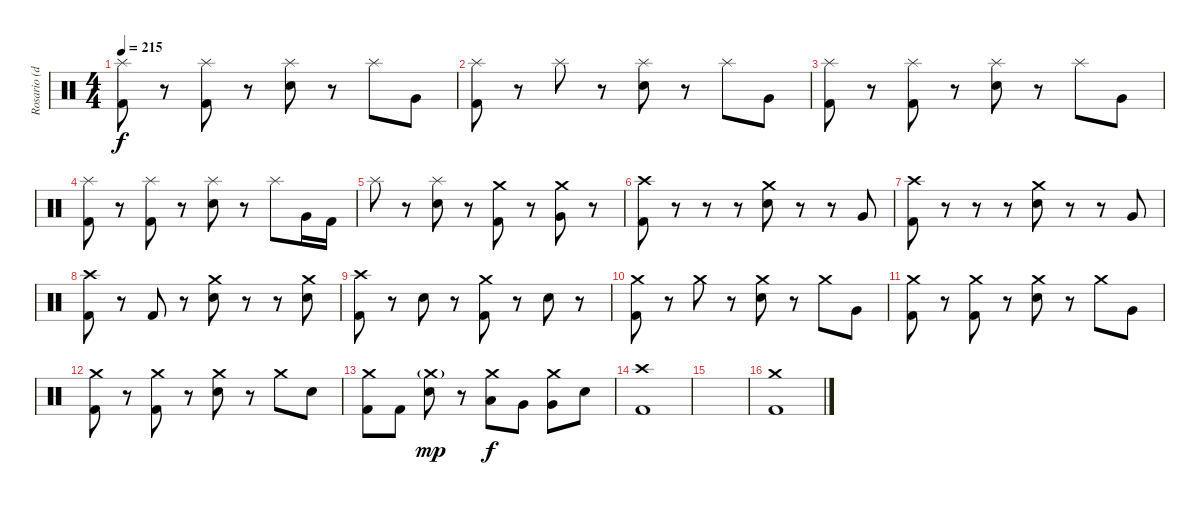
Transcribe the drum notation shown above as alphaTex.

\track ("Rosario (drum)" "Rosario (d") {instrument percussion}
\staff {score}
\articulation defaults
\ts (4 4)
\tempo 215
\clef neutral
\ks c
("Splash (hit)" "Kick (hit) 2").8{dy f} r.8 ("Splash (hit)" "Kick (hit) 2").8 r.8 ("Splash (hit)" "Electric Snare (hit)").8 r.8 "Splash (hit)".8 "Very Low Tom (hit)".8 |
("Splash (hit)" "Kick (hit) 2").8 r.8 "Splash (hit)".8 r.8 ("Splash (hit)" "Electric Snare (hit)").8 r.8 "Splash (hit)".8 "Very Low Tom (hit)".8 |
("Splash (hit)" "Kick (hit) 2").8 r.8 ("Splash (hit)" "Kick (hit) 2").8 r.8 ("Splash (hit)" "Electric Snare (hit)").8 r.8 "Splash (hit)".8 "Very Low Tom (hit)".8 |
("Splash (hit)" "Kick (hit) 2").8 r.8 ("Splash (hit)" "Kick (hit) 2").8 r.8 ("Splash (hit)" "Electric Snare (hit)").8 r.8 "Splash (hit)".8 "Very Low Tom (hit)".16 "Kick (hit) 2".16 |
"Splash (hit)".8 r.8 ("Splash (hit)" "Electric Snare (hit)").8 r.8 ("Crash medium (hit)" "Kick (hit) 2").8 r.8 ("Crash medium (hit)" "Very Low Tom (hit)").8 r.8 |
("Crash high (hit)" "Kick (hit) 2").8 r.8 r.8 r.8 ("Crash medium (hit)" "Electric Snare (hit)").8 r.8 r.8 "Very Low Tom (hit)".8 |
("Crash high (hit)" "Kick (hit) 2").8 r.8 r.8 r.8 ("Crash medium (hit)" "Electric Snare (hit)").8 r.8 r.8 "Very Low Tom (hit)".8 |
("Crash high (hit)" "Kick (hit) 2").8 r.8 "Kick (hit) 2".8 r.8 ("Crash medium (hit)" "Electric Snare (hit)").8 r.8 r.8 ("Crash medium (hit)" "Electric Snare (hit)").8 |
("Crash high (hit)" "Kick (hit) 2").8 r.8 "Electric Snare (hit)".8 r.8 ("Crash medium (hit)" "Kick (hit) 2").8 r.8 "Electric Snare (hit)".8 r.8 |
("Crash medium (hit)" "Kick (hit) 2").8 r.8 "Crash medium (hit)".8 r.8 ("Crash medium (hit)" "Electric Snare (hit)").8 r.8 "Crash medium (hit)".8 "Very Low Tom (hit)".8 |
("Crash medium (hit)" "Kick (hit) 2").8 r.8 ("Crash medium (hit)" "Kick (hit) 2").8 r.8 ("Crash medium (hit)" "Electric Snare (hit)").8 r.8 "Crash medium (hit)".8 "Very Low Tom (hit)".8 |
("Crash medium (hit)" "Kick (hit) 2").8 r.8 ("Crash medium (hit)" "Kick (hit) 2").8 r.8 ("Crash medium (hit)" "Electric Snare (hit)").8 r.8 "Crash medium (hit)".8 "Electric Snare (hit)".8 |
("Crash medium (hit)" "Kick (hit) 2").8 "Kick (hit) 2".8 ("Crash medium (hit)"{g} "Electric Snare (hit)").8{dy mp} r.8 ("Crash medium (hit)" "Low Tom (hit)").8{dy f} "Very Low Tom (hit)".8 ("Crash medium (hit)" "Very Low Tom (hit)").8 "Electric Snare (hit)".8 |
("Crash high (hit)" "Kick (hit) 2").1 |
|
("Crash medium (hit)" "Kick (hit) 2").1
